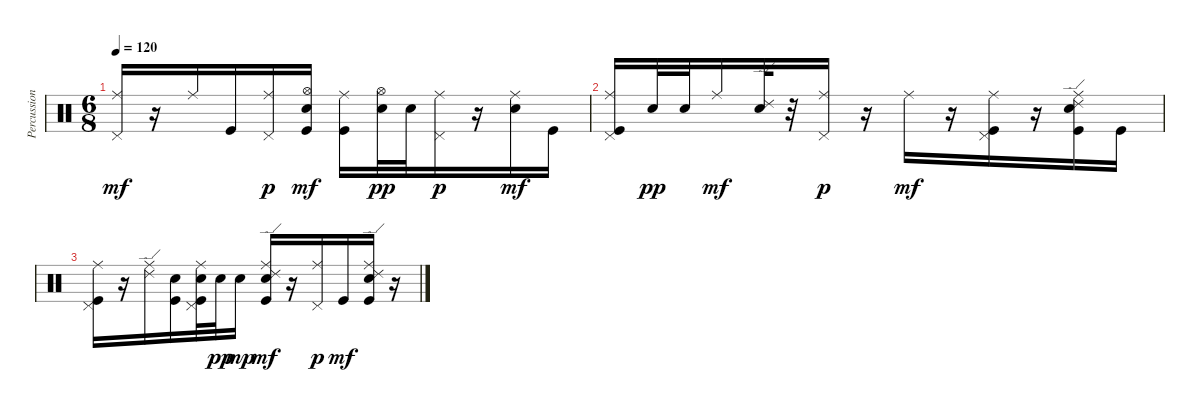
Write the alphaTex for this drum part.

\track ("Percussion" "Percussion") {instrument percussion}
\staff {score}
\articulation defaults
\ts (6 8)
\tempo 120
\clef neutral
\ks c
("Ride (middle)" "Pedal Hi-Hat (hit)").16{dy mf} r.16 "Ride (middle)".16 "Kick (hit)".16 ("Pedal Hi-Hat (hit)" "Ride (middle)").16{dy p} ("Hi-Hat (open)" "Snare (hit) 2" "Kick (hit)").16{dy mf} ("Ride (middle)" "Kick (hit)").16 ("Hi-Hat (open)" "Snare (hit) 2").32{dy pp} "Snare (hit) 2".32 ("Pedal Hi-Hat (hit)" "Ride (middle)").16{dy p} r.16 ("Ride (middle)" "Snare (hit) 2").16{dy mf} "Kick (hit)".16 |
("Ride (middle)" "Pedal Hi-Hat (hit)" "Kick (hit)").16 "Snare (hit) 2".32{dy pp} "Snare (hit) 2".32 "Ride (middle)".16{dy mf} ("Ride (edge) 2" "Snare (hit) 2").32 r.32 ("Pedal Hi-Hat (hit)" "Ride (middle)").16{dy p} r.16 "Ride (middle)".16{dy mf} r.16 ("Pedal Hi-Hat (hit)" "Ride (middle)" "Kick (hit)").16 r.16 ("Ride (edge) 2" "Ride (middle)" "Snare (hit) 2" "Kick (hit)").16 "Kick (hit)".16 |
("Ride (middle)" "Pedal Hi-Hat (hit)" "Kick (hit)").16 r.16 ("Ride (middle)" "Ride (edge) 2").16 ("Snare (hit) 2" "Kick (hit)").16 ("Pedal Hi-Hat (hit)" "Ride (middle)" "Snare (hit) 2" "Kick (hit)").32 "Snare (hit) 2".32{dy pp} "Snare (hit) 2".16{dy mp} ("Ride (edge) 2" "Ride (middle)" "Snare (hit) 2" "Kick (hit)").16{dy mf} r.16 ("Pedal Hi-Hat (hit)" "Ride (middle)").16{dy p} "Kick (hit)".16{dy mf} ("Ride (edge) 2" "Ride (middle)" "Snare (hit) 2" "Kick (hit)").16 r.16
